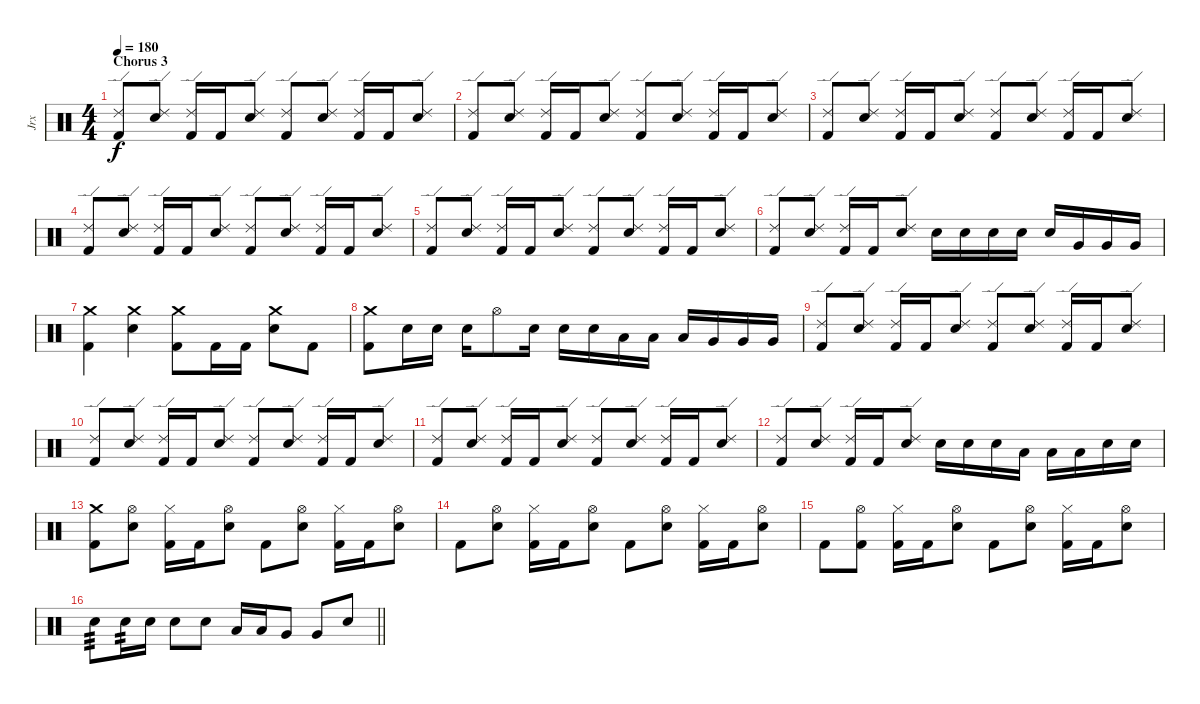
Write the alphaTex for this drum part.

\track ("Jrx" "Jrx") {instrument percussion}
\staff {score}
\articulation defaults
\ts (4 4)
\section ("" "Chorus 3")
\tempo 180
\clef neutral
\ks c
("Kick (hit) 2" "Ride (edge) 2").8{dy f} ("Electric Snare (hit)" "Ride (edge) 2").8 ("Kick (hit) 2" "Ride (edge) 2").16 "Kick (hit) 2".16 ("Electric Snare (hit)" "Ride (edge) 2").8 ("Kick (hit) 2" "Ride (edge) 2").8 ("Electric Snare (hit)" "Ride (edge) 2").8 ("Kick (hit) 2" "Ride (edge) 2").16 "Kick (hit) 2".16 ("Electric Snare (hit)" "Ride (edge) 2").8 |
("Kick (hit) 2" "Ride (edge) 2").8 ("Electric Snare (hit)" "Ride (edge) 2").8 ("Kick (hit) 2" "Ride (edge) 2").16 "Kick (hit) 2".16 ("Electric Snare (hit)" "Ride (edge) 2").8 ("Kick (hit) 2" "Ride (edge) 2").8 ("Electric Snare (hit)" "Ride (edge) 2").8 ("Kick (hit) 2" "Ride (edge) 2").16 "Kick (hit) 2".16 ("Electric Snare (hit)" "Ride (edge) 2").8 |
("Kick (hit) 2" "Ride (edge) 2").8 ("Electric Snare (hit)" "Ride (edge) 2").8 ("Kick (hit) 2" "Ride (edge) 2").16 "Kick (hit) 2".16 ("Electric Snare (hit)" "Ride (edge) 2").8 ("Kick (hit) 2" "Ride (edge) 2").8 ("Electric Snare (hit)" "Ride (edge) 2").8 ("Kick (hit) 2" "Ride (edge) 2").16 "Kick (hit) 2".16 ("Electric Snare (hit)" "Ride (edge) 2").8 |
("Kick (hit) 2" "Ride (edge) 2").8 ("Electric Snare (hit)" "Ride (edge) 2").8 ("Kick (hit) 2" "Ride (edge) 2").16 "Kick (hit) 2".16 ("Electric Snare (hit)" "Ride (edge) 2").8 ("Kick (hit) 2" "Ride (edge) 2").8 ("Electric Snare (hit)" "Ride (edge) 2").8 ("Kick (hit) 2" "Ride (edge) 2").16 "Kick (hit) 2".16 ("Electric Snare (hit)" "Ride (edge) 2").8 |
("Kick (hit) 2" "Ride (edge) 2").8 ("Electric Snare (hit)" "Ride (edge) 2").8 ("Kick (hit) 2" "Ride (edge) 2").16 "Kick (hit) 2".16 ("Electric Snare (hit)" "Ride (edge) 2").8 ("Kick (hit) 2" "Ride (edge) 2").8 ("Electric Snare (hit)" "Ride (edge) 2").8 ("Kick (hit) 2" "Ride (edge) 2").16 "Kick (hit) 2".16 ("Electric Snare (hit)" "Ride (edge) 2").8 |
("Kick (hit) 2" "Ride (edge) 2").8 ("Electric Snare (hit)" "Ride (edge) 2").8 ("Kick (hit) 2" "Ride (edge) 2").16 "Kick (hit) 2".16 ("Electric Snare (hit)" "Ride (edge) 2").8 "Electric Snare (hit)".16 "Electric Snare (hit)".16 "Electric Snare (hit)".16 "Electric Snare (hit)".16 "Electric Snare (hit)".16 "Very Low Tom (hit)".16 "Very Low Tom (hit)".16 "Very Low Tom (hit)".16 |
("Kick (hit) 2" "Crash medium (hit)").4 ("Electric Snare (hit)" "Crash medium (hit)").4 ("Kick (hit) 2" "Crash medium (hit)").8 "Kick (hit) 2".16 "Kick (hit) 2".16 ("Electric Snare (hit)" "Crash medium (hit)").8 "Kick (hit) 2".8 |
("Kick (hit) 2" "Crash medium (hit)").8 "Electric Snare (hit)".16 "Electric Snare (hit)".16 "Electric Snare (hit)".16 "Hi-Hat (open)".8 "Electric Snare (hit)".16 "Electric Snare (hit)".16 "Electric Snare (hit)".16 "Low Tom (hit)".16 "Low Tom (hit)".16 "Low Tom (hit)".16 "Very Low Tom (hit)".16 "Very Low Tom (hit)".16 "Very Low Tom (hit)".16 |
("Kick (hit) 2" "Ride (edge) 2").8 ("Electric Snare (hit)" "Ride (edge) 2").8 ("Kick (hit) 2" "Ride (edge) 2").16 "Kick (hit) 2".16 ("Electric Snare (hit)" "Ride (edge) 2").8 ("Kick (hit) 2" "Ride (edge) 2").8 ("Electric Snare (hit)" "Ride (edge) 2").8 ("Kick (hit) 2" "Ride (edge) 2").16 "Kick (hit) 2".16 ("Electric Snare (hit)" "Ride (edge) 2").8 |
("Kick (hit) 2" "Ride (edge) 2").8 ("Electric Snare (hit)" "Ride (edge) 2").8 ("Kick (hit) 2" "Ride (edge) 2").16 "Kick (hit) 2".16 ("Electric Snare (hit)" "Ride (edge) 2").8 ("Kick (hit) 2" "Ride (edge) 2").8 ("Electric Snare (hit)" "Ride (edge) 2").8 ("Kick (hit) 2" "Ride (edge) 2").16 "Kick (hit) 2".16 ("Electric Snare (hit)" "Ride (edge) 2").8 |
("Kick (hit) 2" "Ride (edge) 2").8 ("Electric Snare (hit)" "Ride (edge) 2").8 ("Kick (hit) 2" "Ride (edge) 2").16 "Kick (hit) 2".16 ("Electric Snare (hit)" "Ride (edge) 2").8 ("Kick (hit) 2" "Ride (edge) 2").8 ("Electric Snare (hit)" "Ride (edge) 2").8 ("Kick (hit) 2" "Ride (edge) 2").16 "Kick (hit) 2".16 ("Electric Snare (hit)" "Ride (edge) 2").8 |
("Kick (hit) 2" "Ride (edge) 2").8 ("Electric Snare (hit)" "Ride (edge) 2").8 ("Kick (hit) 2" "Ride (edge) 2").16 "Kick (hit) 2".16 ("Electric Snare (hit)" "Ride (edge) 2").8 "Electric Snare (hit)".16 "Electric Snare (hit)".16 "Electric Snare (hit)".16 "Low Tom (hit)".16 "Low Tom (hit)".16 "Low Tom (hit)".16 "Electric Snare (hit)".16 "Electric Snare (hit)".16 |
("Kick (hit) 2" "Crash medium (hit)").8 ("Electric Snare (hit)" "Hi-Hat (open)").8 ("Kick (hit) 2" "Hi-Hat (closed)").16 "Kick (hit) 2".16 ("Snare (hit) 2" "Hi-Hat (open)").8 "Kick (hit) 2".8 ("Electric Snare (hit)" "Hi-Hat (open)").8 ("Kick (hit) 2" "Hi-Hat (closed)").16 "Kick (hit) 2".16 ("Snare (hit) 2" "Hi-Hat (open)").8 |
"Kick (hit) 2".8 ("Electric Snare (hit)" "Hi-Hat (open)").8 ("Kick (hit) 2" "Hi-Hat (closed)").16 "Kick (hit) 2".16 ("Snare (hit) 2" "Hi-Hat (open)").8 "Kick (hit) 2".8 ("Electric Snare (hit)" "Hi-Hat (open)").8 ("Kick (hit) 2" "Hi-Hat (closed)").16 "Kick (hit) 2".16 ("Snare (hit) 2" "Hi-Hat (open)").8 |
"Kick (hit) 2".8 ("Kick (hit) 2" "Hi-Hat (open)").8 ("Kick (hit) 2" "Hi-Hat (closed)").16 "Kick (hit) 2".16 ("Snare (hit) 2" "Hi-Hat (open)").8 "Kick (hit) 2".8 ("Electric Snare (hit)" "Hi-Hat (open)").8 ("Kick (hit) 2" "Hi-Hat (closed)").16 "Kick (hit) 2".16 ("Snare (hit) 2" "Hi-Hat (open)").8 |
\barLineRight lightlight "Electric Snare (hit)".8{tp 3} "Electric Snare (hit)".16{tp 2} "Electric Snare (hit)".16 "Electric Snare (hit)".8 "Electric Snare (hit)".8 "Low Tom (hit)".16 "Low Tom (hit)".16 "Very Low Tom (hit)".8 "Very Low Tom (hit)".8 "Electric Snare (hit)".8
